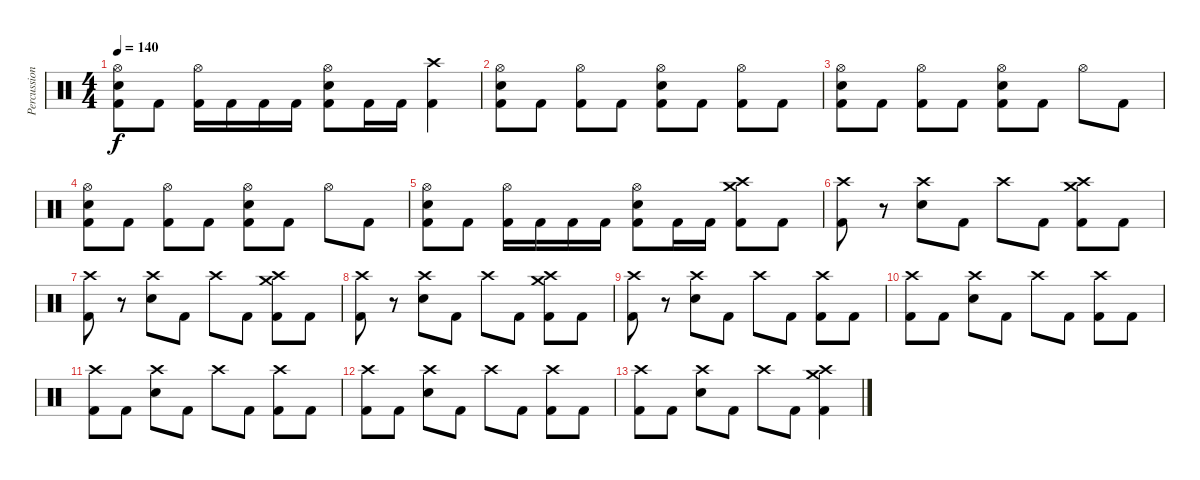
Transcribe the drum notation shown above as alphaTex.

\track ("Percussion" "Percussion") {instrument percussion}
\staff {score}
\articulation defaults
\ts (4 4)
\tempo 140
\clef neutral
\ks c
("Hi-Hat (open)" "Electric Snare (hit)" "Kick (hit) 2").8{dy f} "Kick (hit) 2".8 ("Hi-Hat (open)" "Kick (hit) 2").16 "Kick (hit) 2".16 "Kick (hit) 2".16 "Kick (hit) 2".16 ("Hi-Hat (open)" "Electric Snare (hit)" "Kick (hit) 2").8 "Kick (hit) 2".16 "Kick (hit) 2".16 ("Crash high (hit)" "Kick (hit) 2").4 |
("Hi-Hat (open)" "Electric Snare (hit)" "Kick (hit) 2").8 "Kick (hit) 2".8 ("Hi-Hat (open)" "Kick (hit) 2").8 "Kick (hit) 2".8 ("Hi-Hat (open)" "Electric Snare (hit)" "Kick (hit) 2").8 "Kick (hit) 2".8 ("Hi-Hat (open)" "Kick (hit) 2").8 "Kick (hit) 2".8 |
("Hi-Hat (open)" "Electric Snare (hit)" "Kick (hit) 2").8 "Kick (hit) 2".8 ("Hi-Hat (open)" "Kick (hit) 2").8 "Kick (hit) 2".8 ("Hi-Hat (open)" "Electric Snare (hit)" "Kick (hit) 2").8 "Kick (hit) 2".8 "Hi-Hat (open)".8 "Kick (hit) 2".8 |
("Hi-Hat (open)" "Electric Snare (hit)" "Kick (hit) 2").8 "Kick (hit) 2".8 ("Hi-Hat (open)" "Kick (hit) 2").8 "Kick (hit) 2".8 ("Hi-Hat (open)" "Electric Snare (hit)" "Kick (hit) 2").8 "Kick (hit) 2".8 "Hi-Hat (open)".8 "Kick (hit) 2".8 |
("Hi-Hat (open)" "Electric Snare (hit)" "Kick (hit) 2").8 "Kick (hit) 2".8 ("Hi-Hat (open)" "Kick (hit) 2").16 "Kick (hit) 2".16 "Kick (hit) 2".16 "Kick (hit) 2".16 ("Hi-Hat (open)" "Electric Snare (hit)" "Kick (hit) 2").8 "Kick (hit) 2".16 "Kick (hit) 2".16 ("Crash medium (hit)" "Crash high (hit)" "Kick (hit) 2").8 "Kick (hit) 2".8 |
("Crash high (hit)" "Kick (hit) 2").8 r.8 ("Crash high (hit)" "Electric Snare (hit)").8 "Kick (hit) 2".8 "Crash high (hit)".8 "Kick (hit) 2".8 ("Crash medium (hit)" "Crash high (hit)" "Kick (hit) 2").8 "Kick (hit) 2".8 |
("Crash high (hit)" "Kick (hit) 2").8 r.8 ("Crash high (hit)" "Electric Snare (hit)").8 "Kick (hit) 2".8 "Crash high (hit)".8 "Kick (hit) 2".8 ("Crash medium (hit)" "Crash high (hit)" "Kick (hit) 2").8 "Kick (hit) 2".8 |
("Crash high (hit)" "Kick (hit) 2").8 r.8 ("Crash high (hit)" "Electric Snare (hit)").8 "Kick (hit) 2".8 "Crash high (hit)".8 "Kick (hit) 2".8 ("Crash medium (hit)" "Crash high (hit)" "Kick (hit) 2").8 "Kick (hit) 2".8 |
("Crash high (hit)" "Kick (hit) 2").8 r.8 ("Crash high (hit)" "Electric Snare (hit)").8 "Kick (hit) 2".8 "Crash high (hit)".8 "Kick (hit) 2".8 ("Crash high (hit)" "Kick (hit) 2").8 "Kick (hit) 2".8 |
("Crash high (hit)" "Kick (hit) 2").8 "Kick (hit) 2".8 ("Crash high (hit)" "Electric Snare (hit)").8 "Kick (hit) 2".8 "Crash high (hit)".8 "Kick (hit) 2".8 ("Crash high (hit)" "Kick (hit) 2").8 "Kick (hit) 2".8 |
("Crash high (hit)" "Kick (hit) 2").8 "Kick (hit) 2".8 ("Crash high (hit)" "Electric Snare (hit)").8 "Kick (hit) 2".8 "Crash high (hit)".8 "Kick (hit) 2".8 ("Crash high (hit)" "Kick (hit) 2").8 "Kick (hit) 2".8 |
("Crash high (hit)" "Kick (hit) 2").8 "Kick (hit) 2".8 ("Crash high (hit)" "Electric Snare (hit)").8 "Kick (hit) 2".8 "Crash high (hit)".8 "Kick (hit) 2".8 ("Crash high (hit)" "Kick (hit) 2").8 "Kick (hit) 2".8 |
("Crash high (hit)" "Kick (hit) 2").8 "Kick (hit) 2".8 ("Crash high (hit)" "Electric Snare (hit)").8 "Kick (hit) 2".8 "Crash high (hit)".8 "Kick (hit) 2".8 ("Crash medium (hit)" "Crash high (hit)" "Kick (hit) 2").4
